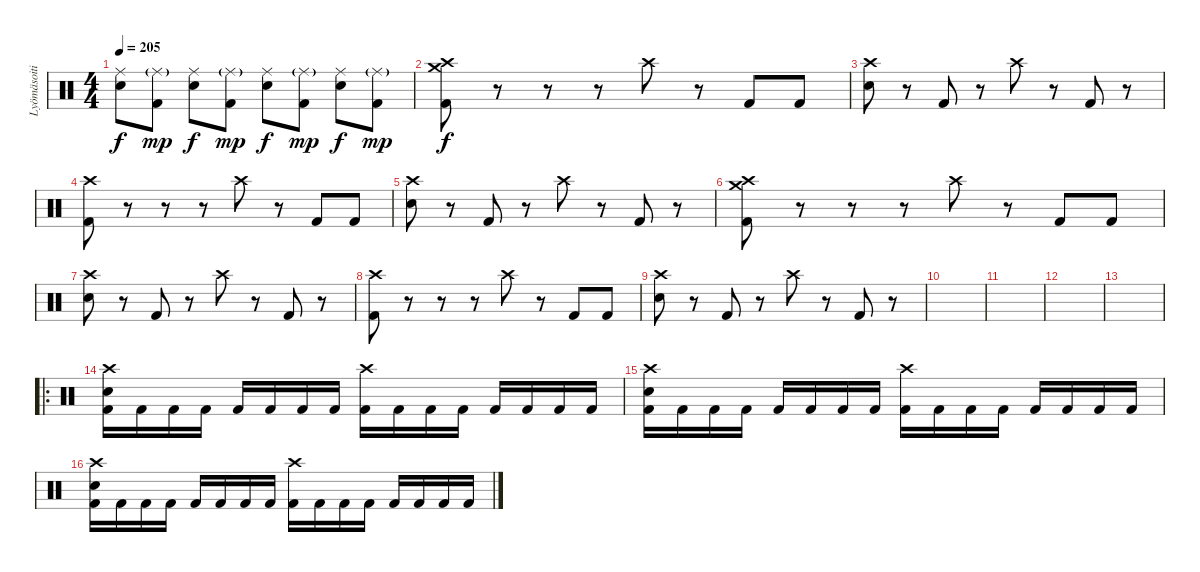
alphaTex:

\track ("Lyömäsoitin" "Lyömäsoiti") {instrument percussion}
\staff {score}
\articulation defaults
\ts (4 4)
\tempo 205
\clef neutral
\ks c
("Electric Snare (hit)" "Ride (middle)").8{dy f} ("Kick (hit) 2" "Ride (middle)"{g}).8{dy mp} ("Electric Snare (hit)" "Ride (middle)").8{dy f} ("Kick (hit) 2" "Ride (middle)"{g}).8{dy mp} ("Electric Snare (hit)" "Ride (middle)").8{dy f} ("Kick (hit) 2" "Ride (middle)"{g}).8{dy mp} ("Electric Snare (hit)" "Ride (middle)").8{dy f} ("Kick (hit) 2" "Ride (middle)"{g}).8{dy mp} |
("Kick (hit) 2" "Crash medium (hit)" "Crash high (hit)").8{dy f} r.8 r.8 r.8 "Crash high (hit)".8 r.8 "Kick (hit) 2".8 "Kick (hit) 2".8 |
("Electric Snare (hit)" "Crash high (hit)").8 r.8 "Kick (hit) 2".8 r.8 "Crash high (hit)".8 r.8 "Kick (hit) 2".8 r.8 |
("Kick (hit) 2" "Crash high (hit)").8 r.8 r.8 r.8 "Crash high (hit)".8 r.8 "Kick (hit) 2".8 "Kick (hit) 2".8 |
("Electric Snare (hit)" "Crash high (hit)").8 r.8 "Kick (hit) 2".8 r.8 "Crash high (hit)".8 r.8 "Kick (hit) 2".8 r.8 |
("Kick (hit) 2" "Crash medium (hit)" "Crash high (hit)").8 r.8 r.8 r.8 "Crash high (hit)".8 r.8 "Kick (hit) 2".8 "Kick (hit) 2".8 |
("Electric Snare (hit)" "Crash high (hit)").8 r.8 "Kick (hit) 2".8 r.8 "Crash high (hit)".8 r.8 "Kick (hit) 2".8 r.8 |
("Kick (hit) 2" "Crash high (hit)").8 r.8 r.8 r.8 "Crash high (hit)".8 r.8 "Kick (hit) 2".8 "Kick (hit) 2".8 |
("Electric Snare (hit)" "Crash high (hit)").8 r.8 "Kick (hit) 2".8 r.8 "Crash high (hit)".8 r.8 "Kick (hit) 2".8 r.8 |
|
|
|
|
\ro
("Kick (hit) 2" "Electric Snare (hit)" "Crash high (hit)").16 "Kick (hit) 2".16 "Kick (hit) 2".16 "Kick (hit) 2".16 "Kick (hit) 2".16 "Kick (hit) 2".16 "Kick (hit) 2".16 "Kick (hit) 2".16 ("Kick (hit) 2" "Crash high (hit)").16 "Kick (hit) 2".16 "Kick (hit) 2".16 "Kick (hit) 2".16 "Kick (hit) 2".16 "Kick (hit) 2".16 "Kick (hit) 2".16 "Kick (hit) 2".16 |
("Kick (hit) 2" "Electric Snare (hit)" "Crash high (hit)").16 "Kick (hit) 2".16 "Kick (hit) 2".16 "Kick (hit) 2".16 "Kick (hit) 2".16 "Kick (hit) 2".16 "Kick (hit) 2".16 "Kick (hit) 2".16 ("Kick (hit) 2" "Crash high (hit)").16 "Kick (hit) 2".16 "Kick (hit) 2".16 "Kick (hit) 2".16 "Kick (hit) 2".16 "Kick (hit) 2".16 "Kick (hit) 2".16 "Kick (hit) 2".16 |
("Kick (hit) 2" "Electric Snare (hit)" "Crash high (hit)").16 "Kick (hit) 2".16 "Kick (hit) 2".16 "Kick (hit) 2".16 "Kick (hit) 2".16 "Kick (hit) 2".16 "Kick (hit) 2".16 "Kick (hit) 2".16 ("Kick (hit) 2" "Crash high (hit)").16 "Kick (hit) 2".16 "Kick (hit) 2".16 "Kick (hit) 2".16 "Kick (hit) 2".16 "Kick (hit) 2".16 "Kick (hit) 2".16 "Kick (hit) 2".16
